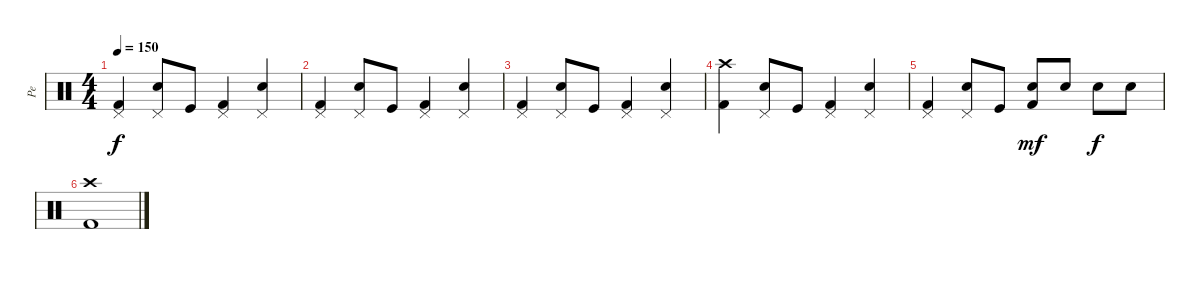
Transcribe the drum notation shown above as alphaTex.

\track ("Pe" "Pe") {instrument percussion}
\staff {score}
\articulation defaults
\ts (4 4)
\tempo 150
\clef neutral
\ks c
("Kick (hit) 2" "Pedal Hi-Hat (hit)").4{dy f} ("Electric Snare (hit)" "Pedal Hi-Hat (hit)").8 "Kick (hit)".8 ("Kick (hit) 2" "Pedal Hi-Hat (hit)").4 ("Electric Snare (hit)" "Pedal Hi-Hat (hit)").4 |
("Kick (hit) 2" "Pedal Hi-Hat (hit)").4 ("Electric Snare (hit)" "Pedal Hi-Hat (hit)").8 "Kick (hit)".8 ("Kick (hit) 2" "Pedal Hi-Hat (hit)").4 ("Electric Snare (hit)" "Pedal Hi-Hat (hit)").4 |
("Kick (hit) 2" "Pedal Hi-Hat (hit)").4 ("Electric Snare (hit)" "Pedal Hi-Hat (hit)").8 "Kick (hit)".8 ("Kick (hit) 2" "Pedal Hi-Hat (hit)").4 ("Electric Snare (hit)" "Pedal Hi-Hat (hit)").4 |
("Kick (hit) 2" "Crash high (hit)").4 ("Electric Snare (hit)" "Pedal Hi-Hat (hit)").8 "Kick (hit)".8 ("Kick (hit) 2" "Pedal Hi-Hat (hit)").4 ("Electric Snare (hit)" "Pedal Hi-Hat (hit)").4 |
("Kick (hit) 2" "Pedal Hi-Hat (hit)").4 ("Electric Snare (hit)" "Pedal Hi-Hat (hit)").8 "Kick (hit)".8 ("Kick (hit) 2" "Electric Snare (hit)").8{dy mf} "Electric Snare (hit)".8 "Electric Snare (hit)".8{dy f} "Electric Snare (hit)".8 |
("Kick (hit) 2" "Crash high (hit)").1
